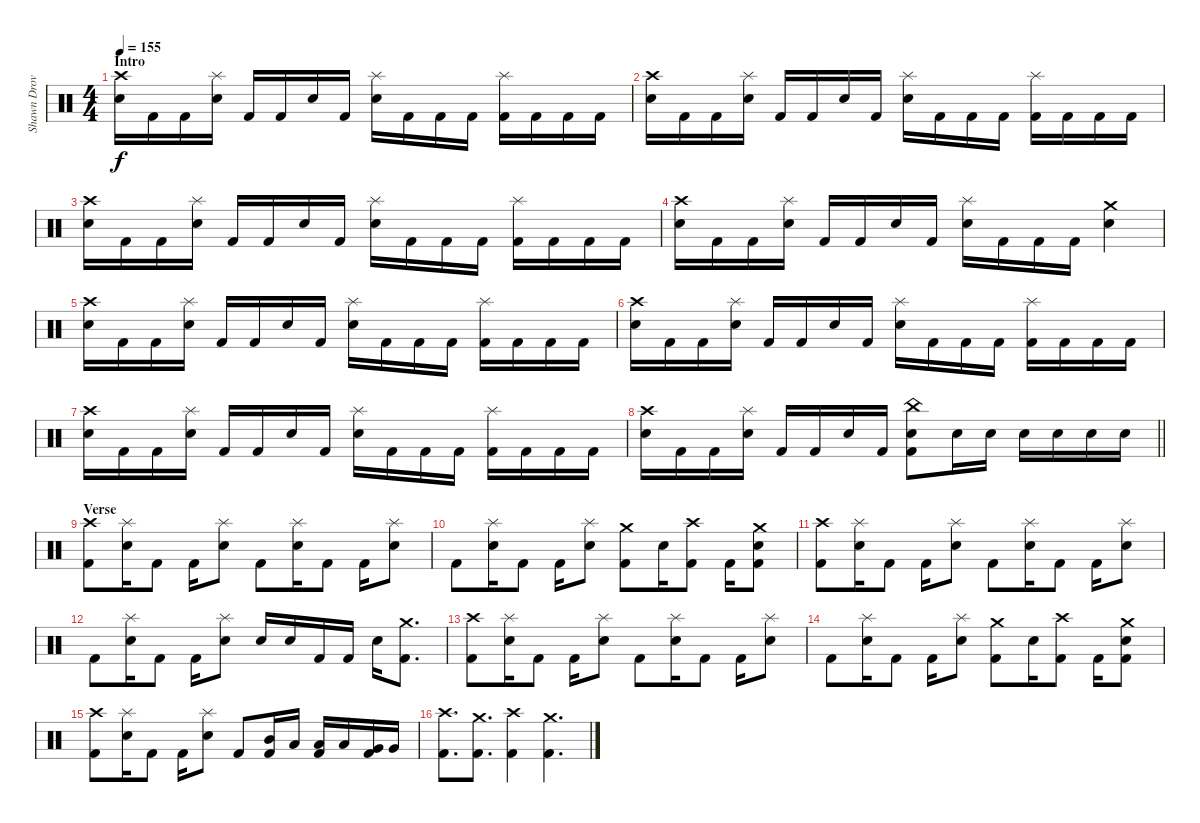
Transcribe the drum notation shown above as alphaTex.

\track ("Shawn Drover" "Shawn Drov") {instrument percussion}
\staff {score}
\articulation defaults
\ts (4 4)
\section ("" "Intro")
\tempo 155
\clef neutral
\ks c
("Crash high (hit)" "Snare (hit) 2").16{dy f} "Kick (hit) 2".16 "Kick (hit) 2".16 ("Splash (hit)" "Snare (hit) 2").16 "Kick (hit) 2".16 "Kick (hit) 2".16 "Snare (hit) 2".16 "Kick (hit) 2".16 ("Splash (hit)" "Snare (hit) 2").16 "Kick (hit) 2".16 "Kick (hit) 2".16 "Kick (hit) 2".16 ("Splash (hit)" "Kick (hit) 2").16 "Kick (hit) 2".16 "Kick (hit) 2".16 "Kick (hit) 2".16 |
("Crash high (hit)" "Snare (hit) 2").16 "Kick (hit) 2".16 "Kick (hit) 2".16 ("Splash (hit)" "Snare (hit) 2").16 "Kick (hit) 2".16 "Kick (hit) 2".16 "Snare (hit) 2".16 "Kick (hit) 2".16 ("Splash (hit)" "Snare (hit) 2").16 "Kick (hit) 2".16 "Kick (hit) 2".16 "Kick (hit) 2".16 ("Splash (hit)" "Kick (hit) 2").16 "Kick (hit) 2".16 "Kick (hit) 2".16 "Kick (hit) 2".16 |
("Crash high (hit)" "Snare (hit) 2").16 "Kick (hit) 2".16 "Kick (hit) 2".16 ("Splash (hit)" "Snare (hit) 2").16 "Kick (hit) 2".16 "Kick (hit) 2".16 "Snare (hit) 2".16 "Kick (hit) 2".16 ("Splash (hit)" "Snare (hit) 2").16 "Kick (hit) 2".16 "Kick (hit) 2".16 "Kick (hit) 2".16 ("Splash (hit)" "Kick (hit) 2").16 "Kick (hit) 2".16 "Kick (hit) 2".16 "Kick (hit) 2".16 |
("Crash high (hit)" "Snare (hit) 2").16 "Kick (hit) 2".16 "Kick (hit) 2".16 ("Splash (hit)" "Snare (hit) 2").16 "Kick (hit) 2".16 "Kick (hit) 2".16 "Snare (hit) 2".16 "Kick (hit) 2".16 ("Splash (hit)" "Snare (hit) 2").16 "Kick (hit) 2".16 "Kick (hit) 2".16 "Kick (hit) 2".16 ("Crash medium (hit)" "Snare (hit) 2").4 |
("Crash high (hit)" "Snare (hit) 2").16 "Kick (hit) 2".16 "Kick (hit) 2".16 ("Splash (hit)" "Snare (hit) 2").16 "Kick (hit) 2".16 "Kick (hit) 2".16 "Snare (hit) 2".16 "Kick (hit) 2".16 ("Splash (hit)" "Snare (hit) 2").16 "Kick (hit) 2".16 "Kick (hit) 2".16 "Kick (hit) 2".16 ("Splash (hit)" "Kick (hit) 2").16 "Kick (hit) 2".16 "Kick (hit) 2".16 "Kick (hit) 2".16 |
("Crash high (hit)" "Snare (hit) 2").16 "Kick (hit) 2".16 "Kick (hit) 2".16 ("Splash (hit)" "Snare (hit) 2").16 "Kick (hit) 2".16 "Kick (hit) 2".16 "Snare (hit) 2".16 "Kick (hit) 2".16 ("Splash (hit)" "Snare (hit) 2").16 "Kick (hit) 2".16 "Kick (hit) 2".16 "Kick (hit) 2".16 ("Splash (hit)" "Kick (hit) 2").16 "Kick (hit) 2".16 "Kick (hit) 2".16 "Kick (hit) 2".16 |
("Crash high (hit)" "Snare (hit) 2").16 "Kick (hit) 2".16 "Kick (hit) 2".16 ("Splash (hit)" "Snare (hit) 2").16 "Kick (hit) 2".16 "Kick (hit) 2".16 "Snare (hit) 2".16 "Kick (hit) 2".16 ("Splash (hit)" "Snare (hit) 2").16 "Kick (hit) 2".16 "Kick (hit) 2".16 "Kick (hit) 2".16 ("Splash (hit)" "Kick (hit) 2").16 "Kick (hit) 2".16 "Kick (hit) 2".16 "Kick (hit) 2".16 |
\barLineRight lightlight
("Crash high (hit)" "Snare (hit) 2").16 "Kick (hit) 2".16 "Kick (hit) 2".16 ("Splash (hit)" "Snare (hit) 2").16 "Kick (hit) 2".16 "Kick (hit) 2".16 "Snare (hit) 2".16 "Kick (hit) 2".16 ("China (hit)" "Snare (hit) 2" "Kick (hit) 2").8 "Snare (hit) 2".16 "Snare (hit) 2".16 "Snare (hit) 2".16 "Snare (hit) 2".16 "Snare (hit) 2".16 "Snare (hit) 2".16 |
\section ("" "Verse")
("Crash high (hit)" "Kick (hit) 2").8 ("Splash (hit)" "Snare (hit) 2").16 "Kick (hit) 2".8 "Kick (hit) 2".16 ("Splash (hit)" "Snare (hit) 2").8 "Kick (hit) 2".8 ("Splash (hit)" "Snare (hit) 2").16 "Kick (hit) 2".8 "Kick (hit) 2".16 ("Splash (hit)" "Snare (hit) 2").8 |
"Kick (hit) 2".8 ("Splash (hit)" "Snare (hit) 2").16 "Kick (hit) 2".8 "Kick (hit) 2".16 ("Splash (hit)" "Snare (hit) 2").8 ("Crash medium (hit)" "Kick (hit) 2").8 "Snare (hit) 2".16 ("Crash high (hit)" "Kick (hit) 2").8 "Kick (hit) 2".16 ("Crash medium (hit)" "Snare (hit) 2" "Kick (hit) 2").8 |
("Crash high (hit)" "Kick (hit) 2").8 ("Splash (hit)" "Snare (hit) 2").16 "Kick (hit) 2".8 "Kick (hit) 2".16 ("Splash (hit)" "Snare (hit) 2").8 "Kick (hit) 2".8 ("Splash (hit)" "Snare (hit) 2").16 "Kick (hit) 2".8 "Kick (hit) 2".16 ("Splash (hit)" "Snare (hit) 2").8 |
"Kick (hit) 2".8 ("Splash (hit)" "Snare (hit) 2").16 "Kick (hit) 2".8 "Kick (hit) 2".16 ("Splash (hit)" "Snare (hit) 2").8 "Snare (hit) 2".16 "Snare (hit) 2".16 "Kick (hit) 2".16 "Kick (hit) 2".16 "Snare (hit) 2".16 ("Crash medium (hit)" "Kick (hit) 2").8{d} |
("Crash high (hit)" "Kick (hit) 2").8 ("Splash (hit)" "Snare (hit) 2").16 "Kick (hit) 2".8 "Kick (hit) 2".16 ("Splash (hit)" "Snare (hit) 2").8 "Kick (hit) 2".8 ("Splash (hit)" "Snare (hit) 2").16 "Kick (hit) 2".8 "Kick (hit) 2".16 ("Splash (hit)" "Snare (hit) 2").8 |
"Kick (hit) 2".8 ("Splash (hit)" "Snare (hit) 2").16 "Kick (hit) 2".8 "Kick (hit) 2".16 ("Splash (hit)" "Snare (hit) 2").8 ("Crash medium (hit)" "Kick (hit) 2").8 "Snare (hit) 2".16 ("Crash high (hit)" "Kick (hit) 2").8 "Kick (hit) 2".16 ("Crash medium (hit)" "Snare (hit) 2" "Kick (hit) 2").8 |
("Crash high (hit)" "Kick (hit) 2").8 ("Splash (hit)" "Snare (hit) 2").16 "Kick (hit) 2".8 "Kick (hit) 2".16 ("Splash (hit)" "Snare (hit) 2").8 "Kick (hit) 2".8 ("Mid Tom (hit)" "Kick (hit) 2").16 "Low Tom (hit)".16 ("Low Tom (hit)" "Kick (hit) 2").16 "Low Tom (hit)".16 ("Very Low Tom (hit)" "Kick (hit) 2").16 "Very Low Tom (hit)".16 |
("Crash high (hit)" "Kick (hit) 2").8{d} ("Crash medium (hit)" "Kick (hit) 2").8{d} ("Crash high (hit)" "Kick (hit) 2").4 ("Crash medium (hit)" "Kick (hit) 2").4{d}
